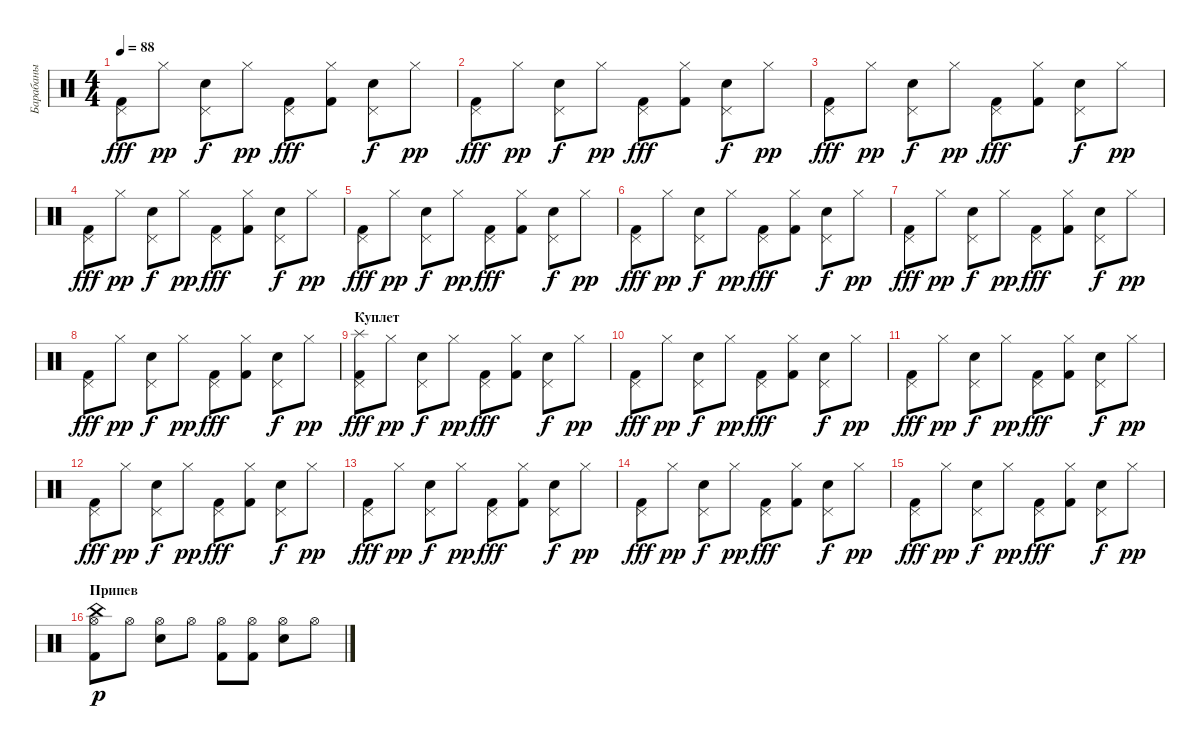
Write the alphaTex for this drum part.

\track ("Барабаны" "Барабаны") {instrument percussion}
\staff {score}
\articulation defaults
\ts (4 4)
\tempo 88
\clef neutral
\ks c
("Pedal Hi-Hat (hit)" "Kick (hit) 2").8{dy fff} "Hi-Hat (closed)".8{dy pp} ("Pedal Hi-Hat (hit)" "Electric Snare (hit)").8{dy f} "Hi-Hat (closed)".8{dy pp} ("Pedal Hi-Hat (hit)" "Kick (hit) 2").8{dy fff} ("Hi-Hat (closed)" "Kick (hit) 2").8 ("Pedal Hi-Hat (hit)" "Electric Snare (hit)").8{dy f} "Hi-Hat (closed)".8{dy pp} |
("Pedal Hi-Hat (hit)" "Kick (hit) 2").8{dy fff} "Hi-Hat (closed)".8{dy pp} ("Pedal Hi-Hat (hit)" "Electric Snare (hit)").8{dy f} "Hi-Hat (closed)".8{dy pp} ("Pedal Hi-Hat (hit)" "Kick (hit) 2").8{dy fff} ("Hi-Hat (closed)" "Kick (hit) 2").8 ("Pedal Hi-Hat (hit)" "Electric Snare (hit)").8{dy f} "Hi-Hat (closed)".8{dy pp} |
("Pedal Hi-Hat (hit)" "Kick (hit) 2").8{dy fff} "Hi-Hat (closed)".8{dy pp} ("Pedal Hi-Hat (hit)" "Electric Snare (hit)").8{dy f} "Hi-Hat (closed)".8{dy pp} ("Pedal Hi-Hat (hit)" "Kick (hit) 2").8{dy fff} ("Hi-Hat (closed)" "Kick (hit) 2").8 ("Pedal Hi-Hat (hit)" "Electric Snare (hit)").8{dy f} "Hi-Hat (closed)".8{dy pp} |
("Pedal Hi-Hat (hit)" "Kick (hit) 2").8{dy fff} "Hi-Hat (closed)".8{dy pp} ("Pedal Hi-Hat (hit)" "Electric Snare (hit)").8{dy f} "Hi-Hat (closed)".8{dy pp} ("Pedal Hi-Hat (hit)" "Kick (hit) 2").8{dy fff} ("Hi-Hat (closed)" "Kick (hit) 2").8 ("Pedal Hi-Hat (hit)" "Electric Snare (hit)").8{dy f} "Hi-Hat (closed)".8{dy pp} |
("Pedal Hi-Hat (hit)" "Kick (hit) 2").8{dy fff} "Hi-Hat (closed)".8{dy pp} ("Pedal Hi-Hat (hit)" "Electric Snare (hit)").8{dy f} "Hi-Hat (closed)".8{dy pp} ("Pedal Hi-Hat (hit)" "Kick (hit) 2").8{dy fff} ("Hi-Hat (closed)" "Kick (hit) 2").8 ("Pedal Hi-Hat (hit)" "Electric Snare (hit)").8{dy f} "Hi-Hat (closed)".8{dy pp} |
("Pedal Hi-Hat (hit)" "Kick (hit) 2").8{dy fff} "Hi-Hat (closed)".8{dy pp} ("Pedal Hi-Hat (hit)" "Electric Snare (hit)").8{dy f} "Hi-Hat (closed)".8{dy pp} ("Pedal Hi-Hat (hit)" "Kick (hit) 2").8{dy fff} ("Hi-Hat (closed)" "Kick (hit) 2").8 ("Pedal Hi-Hat (hit)" "Electric Snare (hit)").8{dy f} "Hi-Hat (closed)".8{dy pp} |
("Pedal Hi-Hat (hit)" "Kick (hit) 2").8{dy fff} "Hi-Hat (closed)".8{dy pp} ("Pedal Hi-Hat (hit)" "Electric Snare (hit)").8{dy f} "Hi-Hat (closed)".8{dy pp} ("Pedal Hi-Hat (hit)" "Kick (hit) 2").8{dy fff} ("Hi-Hat (closed)" "Kick (hit) 2").8 ("Pedal Hi-Hat (hit)" "Electric Snare (hit)").8{dy f} "Hi-Hat (closed)".8{dy pp} |
("Pedal Hi-Hat (hit)" "Kick (hit) 2").8{dy fff} "Hi-Hat (closed)".8{dy pp} ("Pedal Hi-Hat (hit)" "Electric Snare (hit)").8{dy f} "Hi-Hat (closed)".8{dy pp} ("Pedal Hi-Hat (hit)" "Kick (hit) 2").8{dy fff} ("Hi-Hat (closed)" "Kick (hit) 2").8 ("Pedal Hi-Hat (hit)" "Electric Snare (hit)").8{dy f} "Hi-Hat (closed)".8{dy pp} |
\section ("" "Куплет")
("Splash (hit)" "Pedal Hi-Hat (hit)" "Kick (hit) 2").8{dy fff} "Hi-Hat (closed)".8{dy pp} ("Pedal Hi-Hat (hit)" "Electric Snare (hit)").8{dy f} "Hi-Hat (closed)".8{dy pp} ("Pedal Hi-Hat (hit)" "Kick (hit) 2").8{dy fff} ("Hi-Hat (closed)" "Kick (hit) 2").8 ("Pedal Hi-Hat (hit)" "Electric Snare (hit)").8{dy f} "Hi-Hat (closed)".8{dy pp} |
("Pedal Hi-Hat (hit)" "Kick (hit) 2").8{dy fff} "Hi-Hat (closed)".8{dy pp} ("Pedal Hi-Hat (hit)" "Electric Snare (hit)").8{dy f} "Hi-Hat (closed)".8{dy pp} ("Pedal Hi-Hat (hit)" "Kick (hit) 2").8{dy fff} ("Hi-Hat (closed)" "Kick (hit) 2").8 ("Pedal Hi-Hat (hit)" "Electric Snare (hit)").8{dy f} "Hi-Hat (closed)".8{dy pp} |
("Pedal Hi-Hat (hit)" "Kick (hit) 2").8{dy fff} "Hi-Hat (closed)".8{dy pp} ("Pedal Hi-Hat (hit)" "Electric Snare (hit)").8{dy f} "Hi-Hat (closed)".8{dy pp} ("Pedal Hi-Hat (hit)" "Kick (hit) 2").8{dy fff} ("Hi-Hat (closed)" "Kick (hit) 2").8 ("Pedal Hi-Hat (hit)" "Electric Snare (hit)").8{dy f} "Hi-Hat (closed)".8{dy pp} |
("Pedal Hi-Hat (hit)" "Kick (hit) 2").8{dy fff} "Hi-Hat (closed)".8{dy pp} ("Pedal Hi-Hat (hit)" "Electric Snare (hit)").8{dy f} "Hi-Hat (closed)".8{dy pp} ("Pedal Hi-Hat (hit)" "Kick (hit) 2").8{dy fff} ("Hi-Hat (closed)" "Kick (hit) 2").8 ("Pedal Hi-Hat (hit)" "Electric Snare (hit)").8{dy f} "Hi-Hat (closed)".8{dy pp} |
("Pedal Hi-Hat (hit)" "Kick (hit) 2").8{dy fff} "Hi-Hat (closed)".8{dy pp} ("Pedal Hi-Hat (hit)" "Electric Snare (hit)").8{dy f} "Hi-Hat (closed)".8{dy pp} ("Pedal Hi-Hat (hit)" "Kick (hit) 2").8{dy fff} ("Hi-Hat (closed)" "Kick (hit) 2").8 ("Pedal Hi-Hat (hit)" "Electric Snare (hit)").8{dy f} "Hi-Hat (closed)".8{dy pp} |
("Pedal Hi-Hat (hit)" "Kick (hit) 2").8{dy fff} "Hi-Hat (closed)".8{dy pp} ("Pedal Hi-Hat (hit)" "Electric Snare (hit)").8{dy f} "Hi-Hat (closed)".8{dy pp} ("Pedal Hi-Hat (hit)" "Kick (hit) 2").8{dy fff} ("Hi-Hat (closed)" "Kick (hit) 2").8 ("Pedal Hi-Hat (hit)" "Electric Snare (hit)").8{dy f} "Hi-Hat (closed)".8{dy pp} |
("Pedal Hi-Hat (hit)" "Kick (hit) 2").8{dy fff} "Hi-Hat (closed)".8{dy pp} ("Pedal Hi-Hat (hit)" "Electric Snare (hit)").8{dy f} "Hi-Hat (closed)".8{dy pp} ("Pedal Hi-Hat (hit)" "Kick (hit) 2").8{dy fff} ("Hi-Hat (closed)" "Kick (hit) 2").8 ("Pedal Hi-Hat (hit)" "Electric Snare (hit)").8{dy f} "Hi-Hat (closed)".8{dy pp} |
\section ("" "Припев")
("China (hit)" "Kick (hit) 2" "Hi-Hat (open)").8{dy p} "Hi-Hat (open)".8 ("Electric Snare (hit)" "Hi-Hat (open)").8 "Hi-Hat (open)".8 ("Kick (hit) 2" "Hi-Hat (open)").8 ("Kick (hit) 2" "Hi-Hat (open)").8 ("Electric Snare (hit)" "Hi-Hat (open)").8 "Hi-Hat (open)".8
